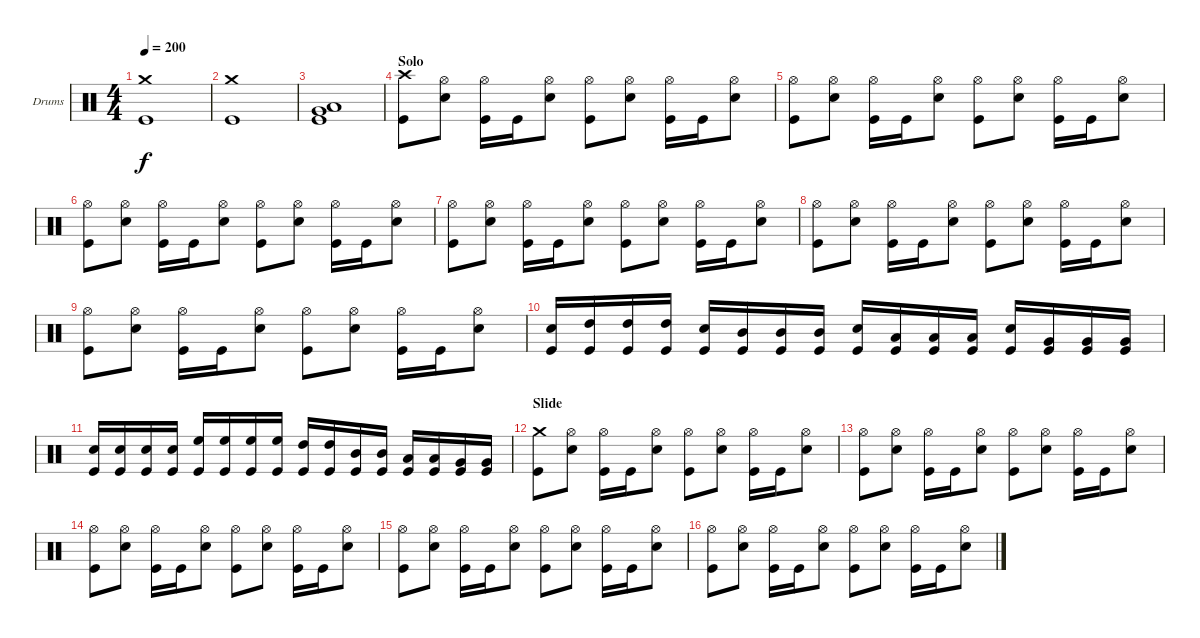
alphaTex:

\bracketExtendMode groupsimilarinstruments
\firstSystemTrackNameOrientation horizontal
\otherSystemsTrackNameOrientation horizontal
\track ("Drumkit" "Drums") {instrument percussion}
\staff {score}
\articulation defaults
\ts (4 4)
\tempo 200
\clef neutral
\ks aminor
("Kick (hit)" "Crash medium (hit)").1{dy f} |
("Kick (hit)" "Crash medium (hit)").1 |
("Kick (hit)" "Low Tom (hit)" "Very Low Tom (hit)").1 |
\section ("" "Solo")
("Kick (hit)" "Crash high (hit)").8 ("Snare (hit) 2" "Hi-Hat (open)").8 ("Kick (hit)" "Hi-Hat (open)").16 "Kick (hit)".16 ("Snare (hit) 2" "Hi-Hat (open)").8 ("Kick (hit)" "Hi-Hat (open)").8 ("Snare (hit) 2" "Hi-Hat (open)").8 ("Kick (hit)" "Hi-Hat (open)").16 "Kick (hit)".16 ("Snare (hit) 2" "Hi-Hat (open)").8 |
("Kick (hit)" "Hi-Hat (open)").8 ("Snare (hit) 2" "Hi-Hat (open)").8 ("Kick (hit)" "Hi-Hat (open)").16 "Kick (hit)".16 ("Snare (hit) 2" "Hi-Hat (open)").8 ("Kick (hit)" "Hi-Hat (open)").8 ("Snare (hit) 2" "Hi-Hat (open)").8 ("Kick (hit)" "Hi-Hat (open)").16 "Kick (hit)".16 ("Snare (hit) 2" "Hi-Hat (open)").8 |
("Kick (hit)" "Hi-Hat (open)").8 ("Snare (hit) 2" "Hi-Hat (open)").8 ("Kick (hit)" "Hi-Hat (open)").16 "Kick (hit)".16 ("Snare (hit) 2" "Hi-Hat (open)").8 ("Kick (hit)" "Hi-Hat (open)").8 ("Snare (hit) 2" "Hi-Hat (open)").8 ("Kick (hit)" "Hi-Hat (open)").16 "Kick (hit)".16 ("Snare (hit) 2" "Hi-Hat (open)").8 |
("Kick (hit)" "Hi-Hat (open)").8 ("Snare (hit) 2" "Hi-Hat (open)").8 ("Kick (hit)" "Hi-Hat (open)").16 "Kick (hit)".16 ("Snare (hit) 2" "Hi-Hat (open)").8 ("Kick (hit)" "Hi-Hat (open)").8 ("Snare (hit) 2" "Hi-Hat (open)").8 ("Kick (hit)" "Hi-Hat (open)").16 "Kick (hit)".16 ("Snare (hit) 2" "Hi-Hat (open)").8 |
("Kick (hit)" "Hi-Hat (open)").8 ("Snare (hit) 2" "Hi-Hat (open)").8 ("Kick (hit)" "Hi-Hat (open)").16 "Kick (hit)".16 ("Snare (hit) 2" "Hi-Hat (open)").8 ("Kick (hit)" "Hi-Hat (open)").8 ("Snare (hit) 2" "Hi-Hat (open)").8 ("Kick (hit)" "Hi-Hat (open)").16 "Kick (hit)".16 ("Snare (hit) 2" "Hi-Hat (open)").8 |
("Kick (hit)" "Hi-Hat (open)").8 ("Snare (hit) 2" "Hi-Hat (open)").8 ("Kick (hit)" "Hi-Hat (open)").16 "Kick (hit)".16 ("Snare (hit) 2" "Hi-Hat (open)").8 ("Kick (hit)" "Hi-Hat (open)").8 ("Snare (hit) 2" "Hi-Hat (open)").8 ("Kick (hit)" "Hi-Hat (open)").16 "Kick (hit)".16 ("Snare (hit) 2" "Hi-Hat (open)").8 |
("Kick (hit)" "Snare (hit) 2").16 ("Kick (hit)" "High Tom (hit)").16 ("Kick (hit)" "High Tom (hit)").16 ("Kick (hit)" "High Tom (hit)").16 ("Kick (hit)" "Snare (hit) 2").16 ("Kick (hit)" "Mid Tom (hit)").16 ("Kick (hit)" "Mid Tom (hit)").16 ("Kick (hit)" "Mid Tom (hit)").16 ("Kick (hit)" "Snare (hit) 2").16 ("Kick (hit)" "Low Tom (hit)").16 ("Kick (hit)" "Low Tom (hit)").16 ("Kick (hit)" "Low Tom (hit)").16 ("Kick (hit)" "Snare (hit) 2").16 ("Kick (hit)" "Very Low Tom (hit)").16 ("Kick (hit)" "Very Low Tom (hit)").16 ("Kick (hit)" "Very Low Tom (hit)").16 |
("Kick (hit)" "Snare (hit) 2").16 ("Kick (hit)" "Snare (hit) 2").16 ("Kick (hit)" "Snare (hit) 2").16 ("Kick (hit)" "Snare (hit) 2").16 ("Kick (hit)" "High Floor Tom (hit)").16 ("Kick (hit)" "High Floor Tom (hit)").16 ("Kick (hit)" "High Floor Tom (hit)").16 ("Kick (hit)" "High Floor Tom (hit)").16 ("Kick (hit)" "High Tom (hit)").16 ("Kick (hit)" "High Tom (hit)").16 ("Kick (hit)" "Mid Tom (hit)").16 ("Kick (hit)" "Mid Tom (hit)").16 ("Kick (hit)" "Low Tom (hit)").16 ("Kick (hit)" "Low Tom (hit)").16 ("Kick (hit)" "Very Low Tom (hit)").16 ("Kick (hit)" "Very Low Tom (hit)").16 |
\section ("" "Slide")
("Kick (hit)" "Crash medium (hit)").8 ("Snare (hit) 2" "Hi-Hat (open)").8 ("Kick (hit)" "Hi-Hat (open)").16 "Kick (hit)".16 ("Snare (hit) 2" "Hi-Hat (open)").8 ("Kick (hit)" "Hi-Hat (open)").8 ("Snare (hit) 2" "Hi-Hat (open)").8 ("Kick (hit)" "Hi-Hat (open)").16 "Kick (hit)".16 ("Snare (hit) 2" "Hi-Hat (open)").8 |
("Kick (hit)" "Hi-Hat (open)").8 ("Snare (hit) 2" "Hi-Hat (open)").8 ("Kick (hit)" "Hi-Hat (open)").16 "Kick (hit)".16 ("Snare (hit) 2" "Hi-Hat (open)").8 ("Kick (hit)" "Hi-Hat (open)").8 ("Snare (hit) 2" "Hi-Hat (open)").8 ("Kick (hit)" "Hi-Hat (open)").16 "Kick (hit)".16 ("Snare (hit) 2" "Hi-Hat (open)").8 |
("Kick (hit)" "Hi-Hat (open)").8 ("Snare (hit) 2" "Hi-Hat (open)").8 ("Kick (hit)" "Hi-Hat (open)").16 "Kick (hit)".16 ("Snare (hit) 2" "Hi-Hat (open)").8 ("Kick (hit)" "Hi-Hat (open)").8 ("Snare (hit) 2" "Hi-Hat (open)").8 ("Kick (hit)" "Hi-Hat (open)").16 "Kick (hit)".16 ("Snare (hit) 2" "Hi-Hat (open)").8 |
("Kick (hit)" "Hi-Hat (open)").8 ("Snare (hit) 2" "Hi-Hat (open)").8 ("Kick (hit)" "Hi-Hat (open)").16 "Kick (hit)".16 ("Snare (hit) 2" "Hi-Hat (open)").8 ("Kick (hit)" "Hi-Hat (open)").8 ("Snare (hit) 2" "Hi-Hat (open)").8 ("Kick (hit)" "Hi-Hat (open)").16 "Kick (hit)".16 ("Snare (hit) 2" "Hi-Hat (open)").8 |
("Kick (hit)" "Hi-Hat (open)").8 ("Snare (hit) 2" "Hi-Hat (open)").8 ("Kick (hit)" "Hi-Hat (open)").16 "Kick (hit)".16 ("Snare (hit) 2" "Hi-Hat (open)").8 ("Kick (hit)" "Hi-Hat (open)").8 ("Snare (hit) 2" "Hi-Hat (open)").8 ("Kick (hit)" "Hi-Hat (open)").16 "Kick (hit)".16 ("Snare (hit) 2" "Hi-Hat (open)").8
